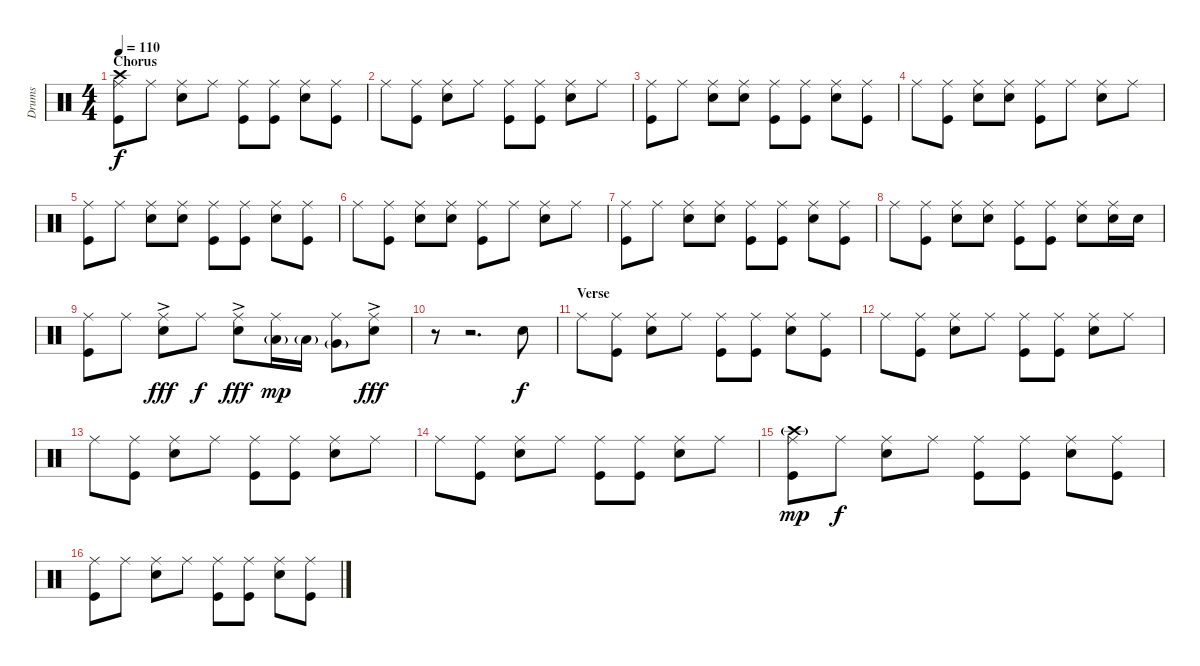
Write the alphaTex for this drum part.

\track ("Drums" "Drums") {instrument percussion}
\staff {score}
\articulation defaults
\ts (4 4)
\section ("" "Chorus")
\tempo 110
\clef neutral
\ks c
("Ride (middle)" "Crash high (hit)" "Kick (hit)").8{dy f} "Ride (middle)".8 ("Ride (middle)" "Snare (hit) 2").8 "Ride (middle)".8 ("Ride (middle)" "Kick (hit)").8 ("Ride (middle)" "Kick (hit)").8 ("Ride (middle)" "Snare (hit) 2").8 ("Ride (middle)" "Kick (hit)").8 |
"Ride (middle)".8 ("Ride (middle)" "Kick (hit)").8 ("Ride (middle)" "Snare (hit) 2").8 "Ride (middle)".8 ("Ride (middle)" "Kick (hit)").8 ("Ride (middle)" "Kick (hit)").8 ("Ride (middle)" "Snare (hit) 2").8 "Ride (middle)".8 |
("Ride (middle)" "Kick (hit)").8 "Ride (middle)".8 ("Ride (middle)" "Snare (hit) 2").8 ("Ride (middle)" "Snare (hit) 2").8 ("Ride (middle)" "Kick (hit)").8 ("Ride (middle)" "Kick (hit)").8 ("Ride (middle)" "Snare (hit) 2").8 ("Ride (middle)" "Kick (hit)").8 |
"Ride (middle)".8 ("Ride (middle)" "Kick (hit)").8 ("Ride (middle)" "Snare (hit) 2").8 ("Ride (middle)" "Snare (hit) 2").8 ("Ride (middle)" "Kick (hit)").8 "Ride (middle)".8 ("Ride (middle)" "Snare (hit) 2").8 "Ride (middle)".8 |
("Ride (middle)" "Kick (hit)").8 "Ride (middle)".8 ("Ride (middle)" "Snare (hit) 2").8 ("Ride (middle)" "Snare (hit) 2").8 ("Ride (middle)" "Kick (hit)").8 ("Ride (middle)" "Kick (hit)").8 ("Ride (middle)" "Snare (hit) 2").8 ("Ride (middle)" "Kick (hit)").8 |
"Ride (middle)".8 ("Ride (middle)" "Kick (hit)").8 ("Ride (middle)" "Snare (hit) 2").8 ("Ride (middle)" "Snare (hit) 2").8 ("Ride (middle)" "Kick (hit)").8 "Ride (middle)".8 ("Ride (middle)" "Snare (hit) 2").8 "Ride (middle)".8 |
("Ride (middle)" "Kick (hit)").8 "Ride (middle)".8 ("Ride (middle)" "Snare (hit) 2").8 ("Ride (middle)" "Snare (hit) 2").8 ("Ride (middle)" "Kick (hit)").8 ("Ride (middle)" "Kick (hit)").8 ("Ride (middle)" "Snare (hit) 2").8 ("Ride (middle)" "Kick (hit)").8 |
"Ride (middle)".8 ("Ride (middle)" "Kick (hit)").8 ("Ride (middle)" "Snare (hit) 2").8 ("Ride (middle)" "Snare (hit) 2").8 ("Ride (middle)" "Kick (hit)").8 ("Ride (middle)" "Kick (hit)").8 ("Ride (middle)" "Snare (hit) 2").8 ("Ride (middle)" "Snare (hit) 2").16 "Snare (hit) 2".16 |
("Ride (middle)" "Kick (hit)").8 "Ride (middle)".8 ("Ride (middle)"{ac} "Snare (hit) 2").8{dy fff} "Ride (middle)".8{dy f} ("Ride (middle)"{ac} "Snare (hit) 2").8{dy fff} ("Ride (middle)" "Low Tom (hit)"{g}).16{dy mp} "Low Tom (hit)"{g}.16 ("Ride (middle)" "Very Low Tom (hit)"{g}).8 ("Ride (middle)"{ac} "Snare (hit) 2").8{dy fff} |
r.8 r.2{d} "Snare (hit) 2".8{dy f} |
\section ("" "Verse")
"Ride (middle)".8 ("Ride (middle)" "Kick (hit)").8 ("Ride (middle)" "Snare (hit) 2").8 "Ride (middle)".8 ("Ride (middle)" "Kick (hit)").8 ("Ride (middle)" "Kick (hit)").8 ("Ride (middle)" "Snare (hit) 2").8 ("Ride (middle)" "Kick (hit)").8 |
"Ride (middle)".8 ("Ride (middle)" "Kick (hit)").8 ("Ride (middle)" "Snare (hit) 2").8 "Ride (middle)".8 ("Ride (middle)" "Kick (hit)").8 ("Ride (middle)" "Kick (hit)").8 ("Ride (middle)" "Snare (hit) 2").8 "Ride (middle)".8 |
"Ride (middle)".8 ("Ride (middle)" "Kick (hit)").8 ("Ride (middle)" "Snare (hit) 2").8 "Ride (middle)".8 ("Ride (middle)" "Kick (hit)").8 ("Ride (middle)" "Kick (hit)").8 ("Ride (middle)" "Snare (hit) 2").8 "Ride (middle)".8 |
"Ride (middle)".8 ("Ride (middle)" "Kick (hit)").8 ("Ride (middle)" "Snare (hit) 2").8 "Ride (middle)".8 ("Ride (middle)" "Kick (hit)").8 ("Ride (middle)" "Kick (hit)").8 ("Ride (middle)" "Snare (hit) 2").8 "Ride (middle)".8 |
("Ride (middle)" "Crash high (hit)"{g} "Kick (hit)").8{dy mp} "Ride (middle)".8{dy f} ("Ride (middle)" "Snare (hit) 2").8 "Ride (middle)".8 ("Ride (middle)" "Kick (hit)").8 ("Ride (middle)" "Kick (hit)").8 ("Ride (middle)" "Snare (hit) 2").8 ("Ride (middle)" "Kick (hit)").8 |
("Ride (middle)" "Kick (hit)").8 "Ride (middle)".8 ("Ride (middle)" "Snare (hit) 2").8 "Ride (middle)".8 ("Ride (middle)" "Kick (hit)").8 ("Ride (middle)" "Kick (hit)").8 ("Ride (middle)" "Snare (hit) 2").8 ("Ride (middle)" "Kick (hit)").8
